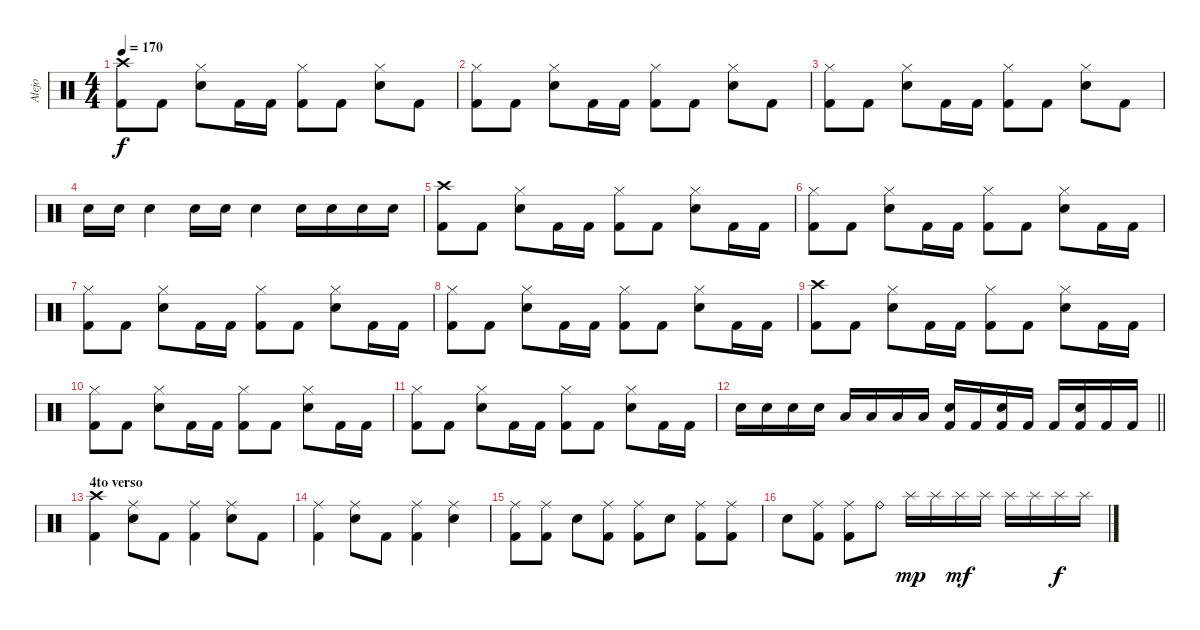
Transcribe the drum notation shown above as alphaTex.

\track ("Alejo" "Alejo") {instrument percussion}
\staff {score}
\articulation defaults
\ts (4 4)
\tempo 170
\clef neutral
\ks c
("Kick (hit) 2" "Crash high (hit)").8{dy f} "Kick (hit) 2".8 ("Snare (hit) 2" "Hi-Hat (closed)").8 "Kick (hit) 2".16 "Kick (hit) 2".16 ("Hi-Hat (closed)" "Kick (hit) 2").8 "Kick (hit) 2".8 ("Snare (hit) 2" "Hi-Hat (closed)").8 "Kick (hit) 2".8 |
("Hi-Hat (closed)" "Kick (hit) 2").8 "Kick (hit) 2".8 ("Snare (hit) 2" "Hi-Hat (closed)").8 "Kick (hit) 2".16 "Kick (hit) 2".16 ("Hi-Hat (closed)" "Kick (hit) 2").8 "Kick (hit) 2".8 ("Snare (hit) 2" "Hi-Hat (closed)").8 "Kick (hit) 2".8 |
("Hi-Hat (closed)" "Kick (hit) 2").8 "Kick (hit) 2".8 ("Snare (hit) 2" "Hi-Hat (closed)").8 "Kick (hit) 2".16 "Kick (hit) 2".16 ("Hi-Hat (closed)" "Kick (hit) 2").8 "Kick (hit) 2".8 ("Snare (hit) 2" "Hi-Hat (closed)").8 "Kick (hit) 2".8 |
"Snare (hit) 2".16 "Snare (hit) 2".16 "Snare (hit) 2".4 "Snare (hit) 2".16 "Snare (hit) 2".16 "Snare (hit) 2".4 "Snare (hit) 2".16 "Snare (hit) 2".16 "Snare (hit) 2".16 "Snare (hit) 2".16 |
("Crash high (hit)" "Kick (hit) 2").8 "Kick (hit) 2".8 ("Snare (hit) 2" "Hi-Hat (closed)").8 "Kick (hit) 2".16 "Kick (hit) 2".16 ("Hi-Hat (closed)" "Kick (hit) 2").8 "Kick (hit) 2".8 ("Snare (hit) 2" "Hi-Hat (closed)").8 "Kick (hit) 2".16 "Kick (hit) 2".16 |
("Hi-Hat (closed)" "Kick (hit) 2").8 "Kick (hit) 2".8 ("Snare (hit) 2" "Hi-Hat (closed)").8 "Kick (hit) 2".16 "Kick (hit) 2".16 ("Hi-Hat (closed)" "Kick (hit) 2").8 "Kick (hit) 2".8 ("Snare (hit) 2" "Hi-Hat (closed)").8 "Kick (hit) 2".16 "Kick (hit) 2".16 |
("Hi-Hat (closed)" "Kick (hit) 2").8 "Kick (hit) 2".8 ("Snare (hit) 2" "Hi-Hat (closed)").8 "Kick (hit) 2".16 "Kick (hit) 2".16 ("Hi-Hat (closed)" "Kick (hit) 2").8 "Kick (hit) 2".8 ("Snare (hit) 2" "Hi-Hat (closed)").8 "Kick (hit) 2".16 "Kick (hit) 2".16 |
("Hi-Hat (closed)" "Kick (hit) 2").8 "Kick (hit) 2".8 ("Snare (hit) 2" "Hi-Hat (closed)").8 "Kick (hit) 2".16 "Kick (hit) 2".16 ("Hi-Hat (closed)" "Kick (hit) 2").8 "Kick (hit) 2".8 ("Snare (hit) 2" "Hi-Hat (closed)").8 "Kick (hit) 2".16 "Kick (hit) 2".16 |
("Kick (hit) 2" "Crash high (hit)").8 "Kick (hit) 2".8 ("Snare (hit) 2" "Hi-Hat (closed)").8 "Kick (hit) 2".16 "Kick (hit) 2".16 ("Hi-Hat (closed)" "Kick (hit) 2").8 "Kick (hit) 2".8 ("Snare (hit) 2" "Hi-Hat (closed)").8 "Kick (hit) 2".16 "Kick (hit) 2".16 |
("Hi-Hat (closed)" "Kick (hit) 2").8 "Kick (hit) 2".8 ("Snare (hit) 2" "Hi-Hat (closed)").8 "Kick (hit) 2".16 "Kick (hit) 2".16 ("Hi-Hat (closed)" "Kick (hit) 2").8 "Kick (hit) 2".8 ("Snare (hit) 2" "Hi-Hat (closed)").8 "Kick (hit) 2".16 "Kick (hit) 2".16 |
("Hi-Hat (closed)" "Kick (hit) 2").8 "Kick (hit) 2".8 ("Snare (hit) 2" "Hi-Hat (closed)").8 "Kick (hit) 2".16 "Kick (hit) 2".16 ("Hi-Hat (closed)" "Kick (hit) 2").8 "Kick (hit) 2".8 ("Snare (hit) 2" "Hi-Hat (closed)").8 "Kick (hit) 2".16 "Kick (hit) 2".16 |
\barLineRight lightlight "Snare (hit) 2".16 "Snare (hit) 2".16 "Snare (hit) 2".16 "Snare (hit) 2".16 "Low Tom (hit)".16 "Low Tom (hit)".16 "Low Tom (hit)".16 "Low Tom (hit)".16
("Kick (hit) 2" "Snare (hit) 2").16 "Kick (hit) 2".16 ("Kick (hit) 2" "Snare (hit) 2").16 "Kick (hit) 2".16 "Kick (hit) 2".16 ("Kick (hit) 2" "Snare (hit) 2").16 "Kick (hit) 2".16 "Kick (hit) 2".16 |
\section ("" "4to verso")
("Crash high (hit)" "Kick (hit) 2").4 ("Snare (hit) 2" "Ride (middle)").8 "Kick (hit) 2".8 ("Kick (hit) 2" "Ride (middle)").4 ("Snare (hit) 2" "Ride (middle)").8 "Kick (hit) 2".8 |
("Kick (hit) 2" "Ride (middle)").4 ("Ride (middle)" "Snare (hit) 2").8 "Kick (hit) 2".8 ("Kick (hit) 2" "Ride (middle)").4 ("Snare (hit) 2" "Ride (middle)").4 |
("Ride (middle)" "Kick (hit) 2").8 ("Kick (hit) 2" "Ride (middle)").8 "Snare (hit) 2".8 ("Ride (middle)" "Kick (hit) 2").8 ("Kick (hit) 2" "Ride (middle)").8 "Snare (hit) 2".8 ("Ride (middle)" "Kick (hit) 2").8 ("Kick (hit) 2" "Ride (middle)").8 |
"Snare (hit) 2".8 ("Ride (middle)" "Kick (hit) 2").8 ("Kick (hit) 2" "Ride (middle)").8 "Ride (bell)".8 "Splash (hit)".16{dy mp} "Splash (hit)".16 "Splash (hit)".16{dy mf} "Splash (hit)".16 "Splash (hit)".16 "Splash (hit)".16 "Splash (hit)".16{dy f} "Splash (hit)".16
